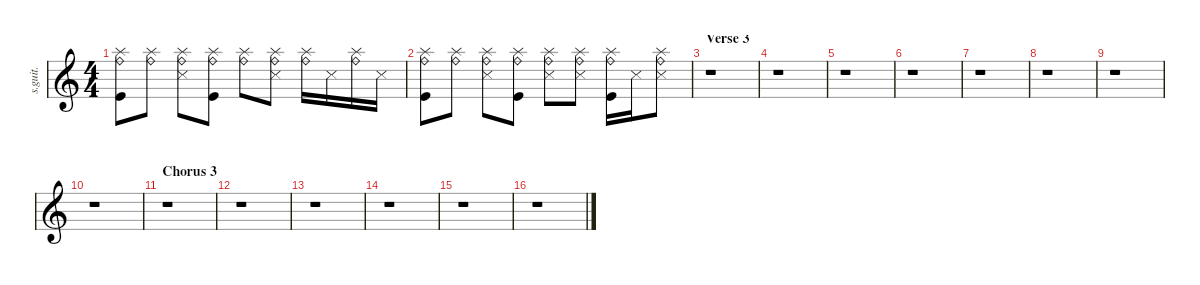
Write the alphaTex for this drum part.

\defaultSystemsLayout 4
\hideDynamics
\bracketExtendMode nobrackets
\track ("Sample Drums" "s.guit.") {instrument percussion}
\staff {score}
\articulation defaults
\ts (4 4)
\tempo (205 hide)
\clef g2
\ks c
("Splash (hit)" "Ride (bell)" "Kick (hit)").8{lyrics (0 "") lyrics (1 "") lyrics (2 "") lyrics (3 "") lyrics (4 "") dy mf} ("Splash (hit)" "Ride (bell)").8{lyrics (0 "") lyrics (1 "") lyrics (2 "") lyrics (3 "") lyrics (4 "")} ("Splash (hit)" "Ride (bell)" "Snare (side stick) 3").8{lyrics (0 "") lyrics (1 "") lyrics (2 "") lyrics (3 "") lyrics (4 "")} ("Splash (hit)" "Ride (bell)" "Kick (hit)").8{lyrics (0 "") lyrics (1 "") lyrics (2 "") lyrics (3 "") lyrics (4 "")} ("Splash (hit)" "Ride (bell)").8{lyrics (0 "") lyrics (1 "") lyrics (2 "") lyrics (3 "") lyrics (4 "")} ("Splash (hit)" "Ride (bell)" "Snare (side stick) 3").8{lyrics (0 "") lyrics (1 "") lyrics (2 "") lyrics (3 "") lyrics (4 "")} ("Splash (hit)" "Ride (bell)").16{lyrics (0 "") lyrics (1 "") lyrics (2 "") lyrics (3 "") lyrics (4 "")} "Snare (side stick) 3".16{lyrics (0 "") lyrics (1 "") lyrics (2 "") lyrics (3 "") lyrics (4 "")} ("Splash (hit)" "Ride (bell)").16{lyrics (0 "") lyrics (1 "") lyrics (2 "") lyrics (3 "") lyrics (4 "")} "Snare (side stick) 3".16{lyrics (0 "") lyrics (1 "") lyrics (2 "") lyrics (3 "") lyrics (4 "")} |
("Splash (hit)" "Ride (bell)" "Kick (hit)").8{lyrics (0 "") lyrics (1 "") lyrics (2 "") lyrics (3 "") lyrics (4 "")} ("Splash (hit)" "Ride (bell)").8{lyrics (0 "") lyrics (1 "") lyrics (2 "") lyrics (3 "") lyrics (4 "")} ("Splash (hit)" "Ride (bell)" "Snare (side stick) 3").8{lyrics (0 "") lyrics (1 "") lyrics (2 "") lyrics (3 "") lyrics (4 "")} ("Splash (hit)" "Ride (bell)" "Kick (hit)").8{lyrics (0 "") lyrics (1 "") lyrics (2 "") lyrics (3 "") lyrics (4 "")} ("Splash (hit)" "Ride (bell)" "Snare (side stick) 3").8{lyrics (0 "") lyrics (1 "") lyrics (2 "") lyrics (3 "") lyrics (4 "")} ("Splash (hit)" "Ride (bell)" "Snare (side stick) 3").8{lyrics (0 "") lyrics (1 "") lyrics (2 "") lyrics (3 "") lyrics (4 "")} ("Splash (hit)" "Ride (bell)" "Kick (hit)").16{lyrics (0 "") lyrics (1 "") lyrics (2 "") lyrics (3 "") lyrics (4 "")} "Snare (side stick) 3".16{lyrics (0 "") lyrics (1 "") lyrics (2 "") lyrics (3 "") lyrics (4 "")} ("Splash (hit)" "Ride (bell)" "Snare (side stick) 3").8{lyrics (0 "") lyrics (1 "") lyrics (2 "") lyrics (3 "") lyrics (4 "")} |
\section ("" "Verse 3")
\tempo (210 hide)
r.1 |
r.1 |
r.1 |
r.1 |
r.1 |
r.1 |
r.1 |
r.1 |
\section ("" "Chorus 3")
r.1 |
r.1 |
r.1 |
r.1 |
r.1 |
r.1
